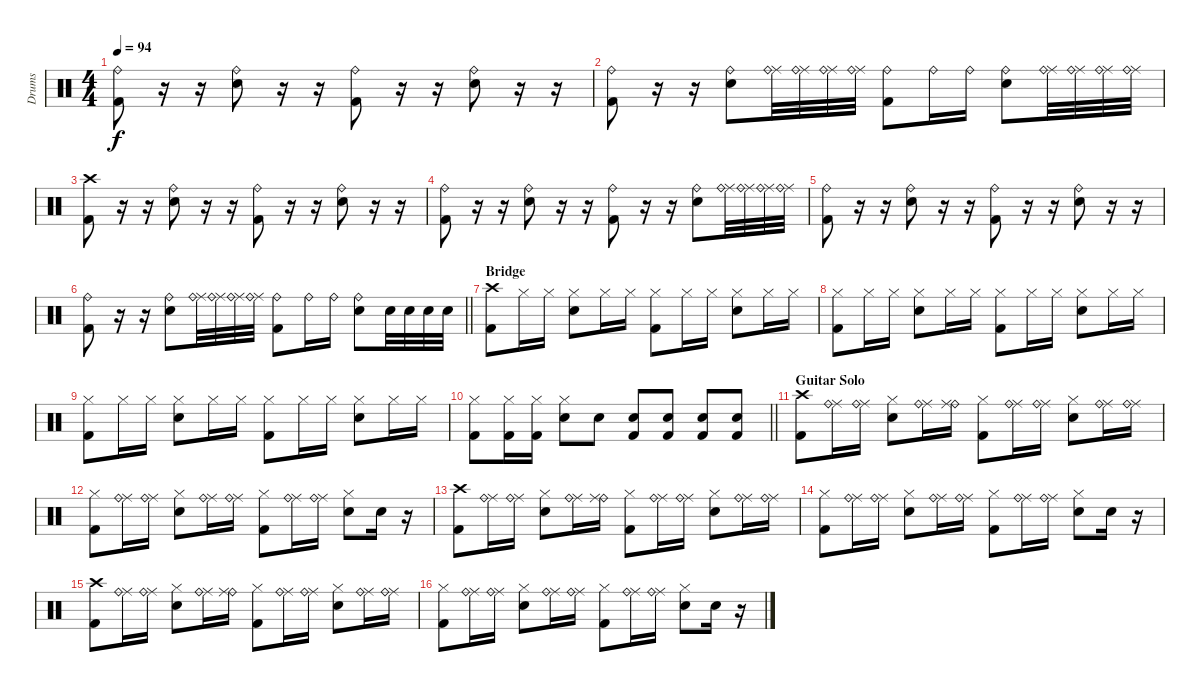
\track ("Drums" "Drums") {instrument percussion}
\staff {score}
\articulation defaults
\ts (4 4)
\tempo 94
\clef neutral
\ks c
("Ride (bell)" "Kick (hit) 2").8{dy f} r.16 r.16 ("Ride (bell)" "Electric Snare (hit)").8 r.16 r.16 ("Ride (bell)" "Kick (hit) 2").8 r.16 r.16 ("Ride (bell)" "Electric Snare (hit)").8 r.16 r.16 |
("Ride (bell)" "Kick (hit) 2").8 r.16 r.16 ("Ride (bell)" "Electric Snare (hit)").8 ("Ride (middle)" "Ride (bell)").32 ("Ride (middle)" "Ride (bell)").32 ("Ride (middle)" "Ride (bell)").32 ("Ride (middle)" "Ride (bell)").32 ("Ride (bell)" "Kick (hit) 2").8 "Ride (bell)".16 "Ride (bell)".16 ("Ride (bell)" "Electric Snare (hit)").8 ("Ride (middle)" "Ride (bell)").32 ("Ride (middle)" "Ride (bell)").32 ("Ride (middle)" "Ride (bell)").32 ("Ride (middle)" "Ride (bell)").32 |
("Crash high (hit)" "Kick (hit) 2").8 r.16 r.16 ("Ride (bell)" "Electric Snare (hit)").8 r.16 r.16 ("Ride (bell)" "Kick (hit) 2").8 r.16 r.16 ("Ride (bell)" "Electric Snare (hit)").8 r.16 r.16 |
("Ride (bell)" "Kick (hit) 2").8 r.16 r.16 ("Ride (bell)" "Electric Snare (hit)").8 r.16 r.16 ("Ride (bell)" "Kick (hit) 2").8 r.16 r.16 ("Ride (bell)" "Electric Snare (hit)").8 ("Ride (middle)" "Ride (bell)").32 ("Ride (middle)" "Ride (bell)").32 ("Ride (middle)" "Ride (bell)").32 ("Ride (middle)" "Ride (bell)").32 |
("Ride (bell)" "Kick (hit) 2").8 r.16 r.16 ("Ride (bell)" "Electric Snare (hit)").8 r.16 r.16 ("Ride (bell)" "Kick (hit) 2").8 r.16 r.16 ("Ride (bell)" "Electric Snare (hit)").8 r.16 r.16 |
\barLineRight lightlight
("Ride (bell)" "Kick (hit) 2").8 r.16 r.16 ("Ride (bell)" "Electric Snare (hit)").8 ("Ride (middle)" "Ride (bell)").32 ("Ride (middle)" "Ride (bell)").32 ("Ride (middle)" "Ride (bell)").32 ("Ride (middle)" "Ride (bell)").32 ("Ride (bell)" "Kick (hit) 2").8 "Ride (bell)".16 "Ride (bell)".16 ("Ride (bell)" "Electric Snare (hit)").8 "Electric Snare (hit)".32 "Electric Snare (hit)".32 "Electric Snare (hit)".32 "Electric Snare (hit)".32 |
\section ("" "Bridge")
("Crash high (hit)" "Kick (hit) 2").8 "Hi-Hat (closed)".16 "Hi-Hat (closed)".16 ("Hi-Hat (closed)" "Electric Snare (hit)").8 "Hi-Hat (closed)".16 "Hi-Hat (closed)".16 ("Hi-Hat (closed)" "Kick (hit) 2").8 "Hi-Hat (closed)".16 "Hi-Hat (closed)".16 ("Hi-Hat (closed)" "Electric Snare (hit)").8 "Hi-Hat (closed)".16 "Hi-Hat (closed)".16 |
("Hi-Hat (closed)" "Kick (hit) 2").8 "Hi-Hat (closed)".16 "Hi-Hat (closed)".16 ("Hi-Hat (closed)" "Electric Snare (hit)").8 "Hi-Hat (closed)".16 "Hi-Hat (closed)".16 ("Hi-Hat (closed)" "Kick (hit) 2").8 "Hi-Hat (closed)".16 "Hi-Hat (closed)".16 ("Hi-Hat (closed)" "Electric Snare (hit)").8 "Hi-Hat (closed)".16 "Hi-Hat (closed)".16 |
("Hi-Hat (closed)" "Kick (hit) 2").8 "Hi-Hat (closed)".16 "Hi-Hat (closed)".16 ("Hi-Hat (closed)" "Electric Snare (hit)").8 "Hi-Hat (closed)".16 "Hi-Hat (closed)".16 ("Hi-Hat (closed)" "Kick (hit) 2").8 "Hi-Hat (closed)".16 "Hi-Hat (closed)".16 ("Hi-Hat (closed)" "Electric Snare (hit)").8 "Hi-Hat (closed)".16 "Hi-Hat (closed)".16 |
\barLineRight lightlight
("Hi-Hat (closed)" "Kick (hit) 2").8 ("Hi-Hat (closed)" "Kick (hit) 2").16 ("Hi-Hat (closed)" "Kick (hit) 2").16 ("Hi-Hat (closed)" "Electric Snare (hit)").8 "Electric Snare (hit)".8 ("Electric Snare (hit)" "Kick (hit) 2").8 ("Electric Snare (hit)" "Kick (hit) 2").8 ("Electric Snare (hit)" "Kick (hit) 2").8 ("Electric Snare (hit)" "Kick (hit) 2").8 |
\section ("" "Guitar Solo")
("Crash high (hit)" "Kick (hit) 2").8 ("Ride (middle)" "Ride (bell)").16 ("Ride (middle)" "Ride (bell)").16 ("Hi-Hat (closed)" "Electric Snare (hit)").8 ("Ride (middle)" "Ride (bell)").16 ("Ride (bell)" "Ride (middle)").16 ("Hi-Hat (closed)" "Kick (hit) 2").8 ("Ride (middle)" "Ride (bell)").16 ("Ride (middle)" "Ride (bell)").16 ("Hi-Hat (closed)" "Electric Snare (hit)").8 ("Ride (middle)" "Ride (bell)").16 ("Ride (middle)" "Ride (bell)").16 |
("Hi-Hat (closed)" "Kick (hit) 2").8 ("Ride (middle)" "Ride (bell)").16 ("Ride (middle)" "Ride (bell)").16 ("Hi-Hat (closed)" "Electric Snare (hit)").8 ("Ride (middle)" "Ride (bell)").16 ("Ride (middle)" "Ride (bell)").16 ("Hi-Hat (closed)" "Kick (hit) 2").8 ("Ride (middle)" "Ride (bell)").16 ("Ride (middle)" "Ride (bell)").16 ("Hi-Hat (closed)" "Electric Snare (hit)").8 "Electric Snare (hit)".16 r.16 |
("Crash high (hit)" "Kick (hit) 2").8 ("Ride (middle)" "Ride (bell)").16 ("Ride (middle)" "Ride (bell)").16 ("Hi-Hat (closed)" "Electric Snare (hit)").8 ("Ride (middle)" "Ride (bell)").16 ("Ride (bell)" "Ride (middle)").16 ("Hi-Hat (closed)" "Kick (hit) 2").8 ("Ride (middle)" "Ride (bell)").16 ("Ride (middle)" "Ride (bell)").16 ("Hi-Hat (closed)" "Electric Snare (hit)").8 ("Ride (middle)" "Ride (bell)").16 ("Ride (middle)" "Ride (bell)").16 |
("Hi-Hat (closed)" "Kick (hit) 2").8 ("Ride (middle)" "Ride (bell)").16 ("Ride (middle)" "Ride (bell)").16 ("Hi-Hat (closed)" "Electric Snare (hit)").8 ("Ride (middle)" "Ride (bell)").16 ("Ride (middle)" "Ride (bell)").16 ("Hi-Hat (closed)" "Kick (hit) 2").8 ("Ride (middle)" "Ride (bell)").16 ("Ride (middle)" "Ride (bell)").16 ("Hi-Hat (closed)" "Electric Snare (hit)").8 "Electric Snare (hit)".16 r.16 |
("Crash high (hit)" "Kick (hit) 2").8 ("Ride (middle)" "Ride (bell)").16 ("Ride (middle)" "Ride (bell)").16 ("Hi-Hat (closed)" "Electric Snare (hit)").8 ("Ride (middle)" "Ride (bell)").16 ("Ride (bell)" "Ride (middle)").16 ("Hi-Hat (closed)" "Kick (hit) 2").8 ("Ride (middle)" "Ride (bell)").16 ("Ride (middle)" "Ride (bell)").16 ("Hi-Hat (closed)" "Electric Snare (hit)").8 ("Ride (middle)" "Ride (bell)").16 ("Ride (middle)" "Ride (bell)").16 |
("Hi-Hat (closed)" "Kick (hit) 2").8 ("Ride (middle)" "Ride (bell)").16 ("Ride (middle)" "Ride (bell)").16 ("Hi-Hat (closed)" "Electric Snare (hit)").8 ("Ride (middle)" "Ride (bell)").16 ("Ride (middle)" "Ride (bell)").16 ("Hi-Hat (closed)" "Kick (hit) 2").8 ("Ride (middle)" "Ride (bell)").16 ("Ride (middle)" "Ride (bell)").16 ("Hi-Hat (closed)" "Electric Snare (hit)").8 "Electric Snare (hit)".16 r.16
